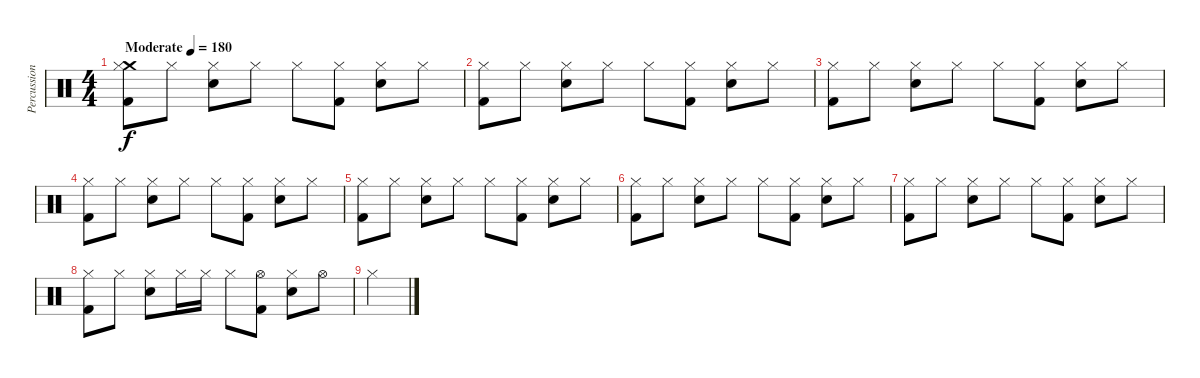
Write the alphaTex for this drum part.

\track ("Percussion" "Percussion") {instrument percussion}
\staff {score}
\articulation defaults
\ts (4 4)
\tempo (180 "Moderate")
\clef neutral
\ks c
("Crash medium (hit)" "Hi-Hat (closed)" "Kick (hit) 2").8{dy f} "Hi-Hat (closed)".8 ("Hi-Hat (closed)" "Snare (hit) 2").8 "Hi-Hat (closed)".8 "Hi-Hat (closed)".8 ("Hi-Hat (closed)" "Kick (hit) 2").8 ("Hi-Hat (closed)" "Snare (hit) 2").8 "Hi-Hat (closed)".8 |
("Hi-Hat (closed)" "Kick (hit) 2").8 "Hi-Hat (closed)".8 ("Hi-Hat (closed)" "Snare (hit) 2").8 "Hi-Hat (closed)".8 "Hi-Hat (closed)".8 ("Hi-Hat (closed)" "Kick (hit) 2").8 ("Hi-Hat (closed)" "Snare (hit) 2").8 "Hi-Hat (closed)".8 |
("Hi-Hat (closed)" "Kick (hit) 2").8 "Hi-Hat (closed)".8 ("Hi-Hat (closed)" "Snare (hit) 2").8 "Hi-Hat (closed)".8 "Hi-Hat (closed)".8 ("Hi-Hat (closed)" "Kick (hit) 2").8 ("Hi-Hat (closed)" "Snare (hit) 2").8 "Hi-Hat (closed)".8 |
("Hi-Hat (closed)" "Kick (hit) 2").8 "Hi-Hat (closed)".8 ("Hi-Hat (closed)" "Snare (hit) 2").8 "Hi-Hat (closed)".8 "Hi-Hat (closed)".8 ("Hi-Hat (closed)" "Kick (hit) 2").8 ("Hi-Hat (closed)" "Snare (hit) 2").8 "Hi-Hat (closed)".8 |
("Hi-Hat (closed)" "Kick (hit) 2").8 "Hi-Hat (closed)".8 ("Hi-Hat (closed)" "Snare (hit) 2").8 "Hi-Hat (closed)".8 "Hi-Hat (closed)".8 ("Hi-Hat (closed)" "Kick (hit) 2").8 ("Hi-Hat (closed)" "Snare (hit) 2").8 "Hi-Hat (closed)".8 |
("Hi-Hat (closed)" "Kick (hit) 2").8 "Hi-Hat (closed)".8 ("Hi-Hat (closed)" "Snare (hit) 2").8 "Hi-Hat (closed)".8 "Hi-Hat (closed)".8 ("Hi-Hat (closed)" "Kick (hit) 2").8 ("Hi-Hat (closed)" "Snare (hit) 2").8 "Hi-Hat (closed)".8 |
("Hi-Hat (closed)" "Kick (hit) 2").8 "Hi-Hat (closed)".8 ("Hi-Hat (closed)" "Snare (hit) 2").8 "Hi-Hat (closed)".8 "Hi-Hat (closed)".8 ("Hi-Hat (closed)" "Kick (hit) 2").8 ("Hi-Hat (closed)" "Snare (hit) 2").8 "Hi-Hat (closed)".8 |
("Hi-Hat (closed)" "Kick (hit) 2").8 "Hi-Hat (closed)".8 ("Hi-Hat (closed)" "Snare (hit) 2").8 "Hi-Hat (closed)".16 "Hi-Hat (closed)".16 "Hi-Hat (closed)".8 ("Hi-Hat (open)" "Kick (hit) 2").8 ("Hi-Hat (closed)" "Snare (hit) 2").8 "Hi-Hat (open)".8 |
"Hi-Hat (closed)".4
